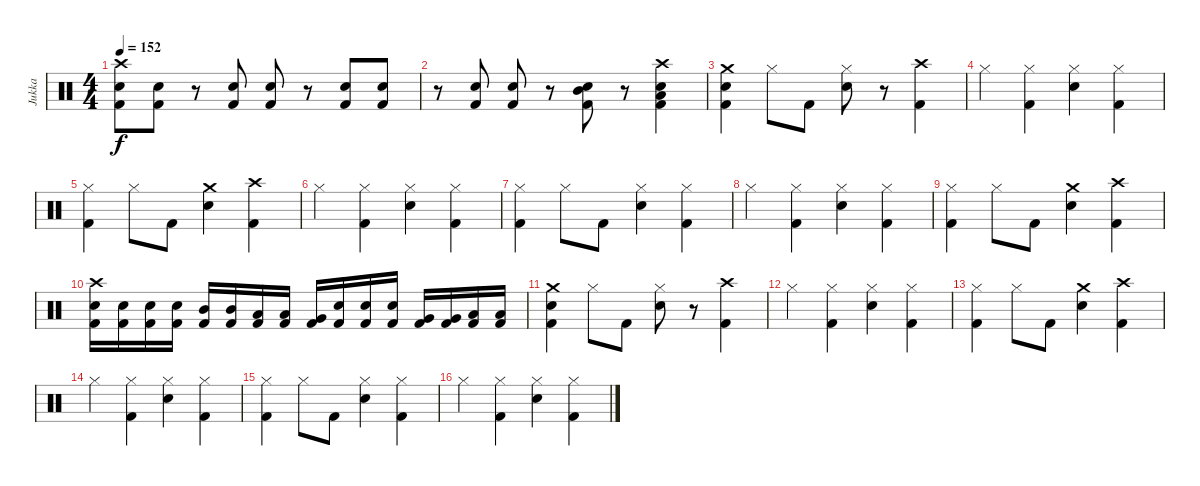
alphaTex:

\track ("Jukka" "Jukka") {instrument percussion}
\staff {score}
\articulation defaults
\ts (4 4)
\tempo 152
\clef neutral
\ks c
("Crash high (hit)" "Electric Snare (hit)" "Kick (hit) 2").8{dy f} ("Electric Snare (hit)" "Kick (hit) 2").8 r.8 ("Electric Snare (hit)" "Kick (hit) 2").8 ("Electric Snare (hit)" "Kick (hit) 2").8 r.8 ("Electric Snare (hit)" "Kick (hit) 2").8 ("Electric Snare (hit)" "Kick (hit) 2").8 |
r.8 ("Electric Snare (hit)" "Kick (hit) 2").8 ("Electric Snare (hit)" "Kick (hit) 2").8 r.8 ("Electric Snare (hit)" "Mid Tom (hit)" "Kick (hit) 2").8 r.8 ("Crash high (hit)" "Electric Snare (hit)" "Low Tom (hit)" "Kick (hit) 2").4 |
("Crash medium (hit)" "Electric Snare (hit)" "Kick (hit) 2").4 "Hi-Hat (closed)".8 "Kick (hit) 2".8 ("Hi-Hat (closed)" "Electric Snare (hit)").8 r.8 ("Crash high (hit)" "Kick (hit) 2").4 |
"Hi-Hat (closed)".4 ("Hi-Hat (closed)" "Kick (hit) 2").4 ("Hi-Hat (closed)" "Electric Snare (hit)").4 ("Hi-Hat (closed)" "Kick (hit) 2").4 |
("Hi-Hat (closed)" "Kick (hit) 2").4 "Hi-Hat (closed)".8 "Kick (hit) 2".8 ("Crash medium (hit)" "Electric Snare (hit)").4 ("Crash high (hit)" "Kick (hit) 2").4 |
"Hi-Hat (closed)".4 ("Hi-Hat (closed)" "Kick (hit) 2").4 ("Hi-Hat (closed)" "Electric Snare (hit)").4 ("Hi-Hat (closed)" "Kick (hit) 2").4 |
("Hi-Hat (closed)" "Kick (hit) 2").4 "Hi-Hat (closed)".8 "Kick (hit) 2".8 ("Hi-Hat (closed)" "Electric Snare (hit)").4 ("Hi-Hat (closed)" "Kick (hit) 2").4 |
"Hi-Hat (closed)".4 ("Hi-Hat (closed)" "Kick (hit) 2").4 ("Hi-Hat (closed)" "Electric Snare (hit)").4 ("Hi-Hat (closed)" "Kick (hit) 2").4 |
("Hi-Hat (closed)" "Kick (hit) 2").4 "Hi-Hat (closed)".8 "Kick (hit) 2".8 ("Crash medium (hit)" "Electric Snare (hit)").4 ("Crash high (hit)" "Kick (hit) 2").4 |
("Crash high (hit)" "Electric Snare (hit)" "Kick (hit) 2").16 ("Electric Snare (hit)" "Kick (hit) 2").16 ("Electric Snare (hit)" "Kick (hit) 2").16 ("Electric Snare (hit)" "Kick (hit) 2").16 ("Mid Tom (hit)" "Kick (hit) 2").16 ("Mid Tom (hit)" "Kick (hit) 2").16 ("Low Tom (hit)" "Kick (hit) 2").16 ("Low Tom (hit)" "Kick (hit) 2").16 ("Very Low Tom (hit)" "Kick (hit) 2").16 ("Electric Snare (hit)" "Kick (hit) 2").16 ("Electric Snare (hit)" "Kick (hit) 2").16 ("Electric Snare (hit)" "Kick (hit) 2").16 ("Very Low Tom (hit)" "Kick (hit) 2").16 ("Very Low Tom (hit)" "Kick (hit) 2").16 ("Low Floor Tom (hit)" "Kick (hit) 2").16 ("Low Floor Tom (hit)" "Kick (hit) 2").16 |
("Crash medium (hit)" "Electric Snare (hit)" "Kick (hit) 2").4 "Hi-Hat (closed)".8 "Kick (hit) 2".8 ("Hi-Hat (closed)" "Electric Snare (hit)").8 r.8 ("Crash high (hit)" "Kick (hit) 2").4 |
"Hi-Hat (closed)".4 ("Hi-Hat (closed)" "Kick (hit) 2").4 ("Hi-Hat (closed)" "Electric Snare (hit)").4 ("Hi-Hat (closed)" "Kick (hit) 2").4 |
("Hi-Hat (closed)" "Kick (hit) 2").4 "Hi-Hat (closed)".8 "Kick (hit) 2".8 ("Crash medium (hit)" "Electric Snare (hit)").4 ("Crash high (hit)" "Kick (hit) 2").4 |
"Hi-Hat (closed)".4 ("Hi-Hat (closed)" "Kick (hit) 2").4 ("Hi-Hat (closed)" "Electric Snare (hit)").4 ("Hi-Hat (closed)" "Kick (hit) 2").4 |
("Hi-Hat (closed)" "Kick (hit) 2").4 "Hi-Hat (closed)".8 "Kick (hit) 2".8 ("Hi-Hat (closed)" "Electric Snare (hit)").4 ("Hi-Hat (closed)" "Kick (hit) 2").4 |
"Hi-Hat (closed)".4 ("Hi-Hat (closed)" "Kick (hit) 2").4 ("Hi-Hat (closed)" "Electric Snare (hit)").4 ("Hi-Hat (closed)" "Kick (hit) 2").4
